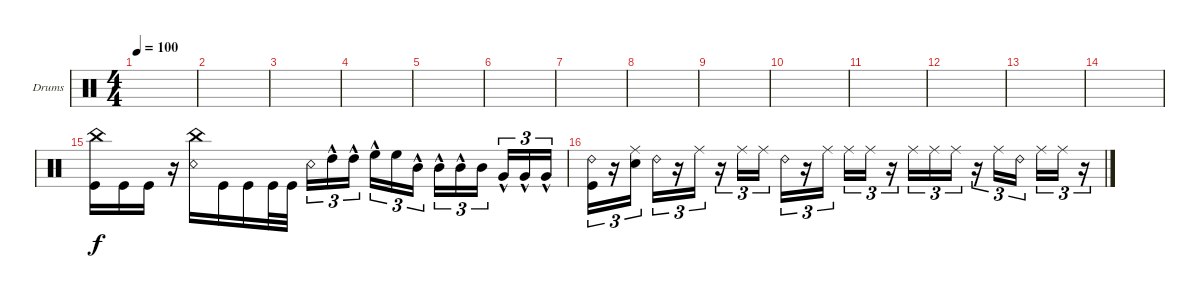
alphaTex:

\defaultSystemsLayout 4
\bracketExtendMode groupsimilarinstruments
\firstSystemTrackNameOrientation horizontal
\otherSystemsTrackNameOrientation horizontal
\track ("Drumkit" "Drums") {solo instrument percussion}
\staff {score}
\articulation defaults
\ts (4 4)
\tempo 100
\clef neutral
\ks c
|
|
|
|
|
|
|
|
|
|
|
|
|
|
("China (hit)" "Kick (hit)").16 "Kick (hit)".16 "Kick (hit)".16 r.16 ("Snare (rim shot)" "China (hit)").16 "Kick (hit)".16 "Kick (hit)".16 "Kick (hit)".32 "Kick (hit)".32 "Snare (rim shot)".16{tu (3 2)} "High Tom (hit)"{hac}.16{tu (3 2)} "High Tom (hit)"{hac}.16{tu (3 2)} "High Floor Tom (hit)"{hac}.16{tu (3 2)} "High Floor Tom (hit)".16{tu (3 2)} "Mid Tom (hit)"{hac}.16{tu (3 2)} "Mid Tom (hit)"{hac}.16{tu (3 2)} "Mid Tom (hit)"{hac}.16{tu (3 2)} "Mid Tom (hit)".16{tu (3 2)} "Very Low Tom (hit)"{hac}.16{tu (3 2)} "Very Low Tom (hit)"{hac}.16{tu (3 2)} "Very Low Tom (hit)"{hac}.16{tu (3 2)} |
("Ride (bell) 2" "Kick (hit)").16{tu (3 2)} r.16{tu (3 2)} ("Ride (middle)" "Snare (hit) 2").16{tu (3 2)} "Ride (bell) 2".16{tu (3 2)} r.16{tu (3 2)} "Ride (middle)".16{tu (3 2)} r.16{tu (3 2)} "Ride (middle)".16{tu (3 2)} "Ride (middle)".16{tu (3 2)} "Ride (bell) 2".16{tu (3 2)} r.16{tu (3 2)} "Ride (middle)".16{tu (3 2)} "Ride (middle)".16{tu (3 2)} "Ride (middle)".16{tu (3 2)} r.16{tu (3 2)} "Ride (middle)".16{tu (3 2)} "Ride (middle)".16{tu (3 2)} "Ride (middle)".16{tu (3 2)} r.16{tu (3 2)} "Ride (middle)".16{tu (3 2)} "Ride (bell) 2".16{tu (3 2)} "Ride (middle)".16{tu (3 2)} "Ride (middle)".16{tu (3 2)} r.16{tu (3 2)}
